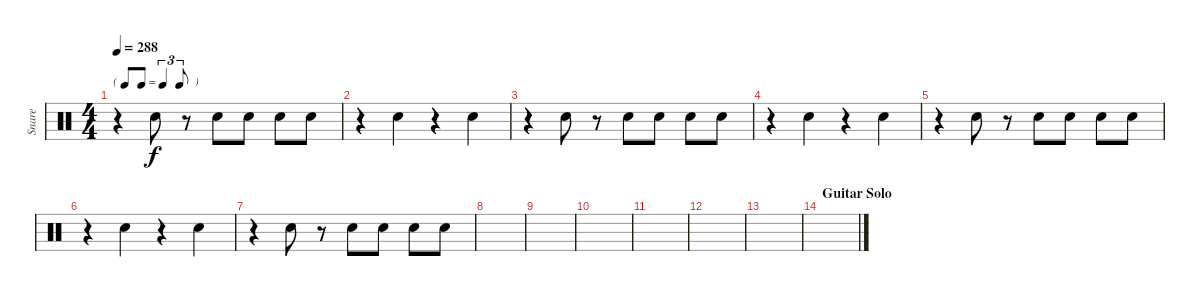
\track ("Snare" "Snare") {instrument percussion}
\staff {score}
\articulation defaults
\ts (4 4)
\tf triplet8th
\tempo 288
\clef neutral
\ks c
r.4{dy f} "Snare (hit) 2".8 r.8 "Snare (hit) 2".8 "Snare (hit) 2".8 "Snare (hit) 2".8 "Snare (hit) 2".8 |
r.4 "Snare (hit) 2".4 r.4 "Snare (hit) 2".4 |
r.4 "Snare (hit) 2".8 r.8 "Snare (hit) 2".8 "Snare (hit) 2".8 "Snare (hit) 2".8 "Snare (hit) 2".8 |
r.4 "Snare (hit) 2".4 r.4 "Snare (hit) 2".4 |
r.4 "Snare (hit) 2".8 r.8 "Snare (hit) 2".8 "Snare (hit) 2".8 "Snare (hit) 2".8 "Snare (hit) 2".8 |
r.4 "Snare (hit) 2".4 r.4 "Snare (hit) 2".4 |
r.4 "Snare (hit) 2".8 r.8 "Snare (hit) 2".8 "Snare (hit) 2".8 "Snare (hit) 2".8 "Snare (hit) 2".8 |
|
|
|
|
|
|
\section ("" "Guitar Solo")
